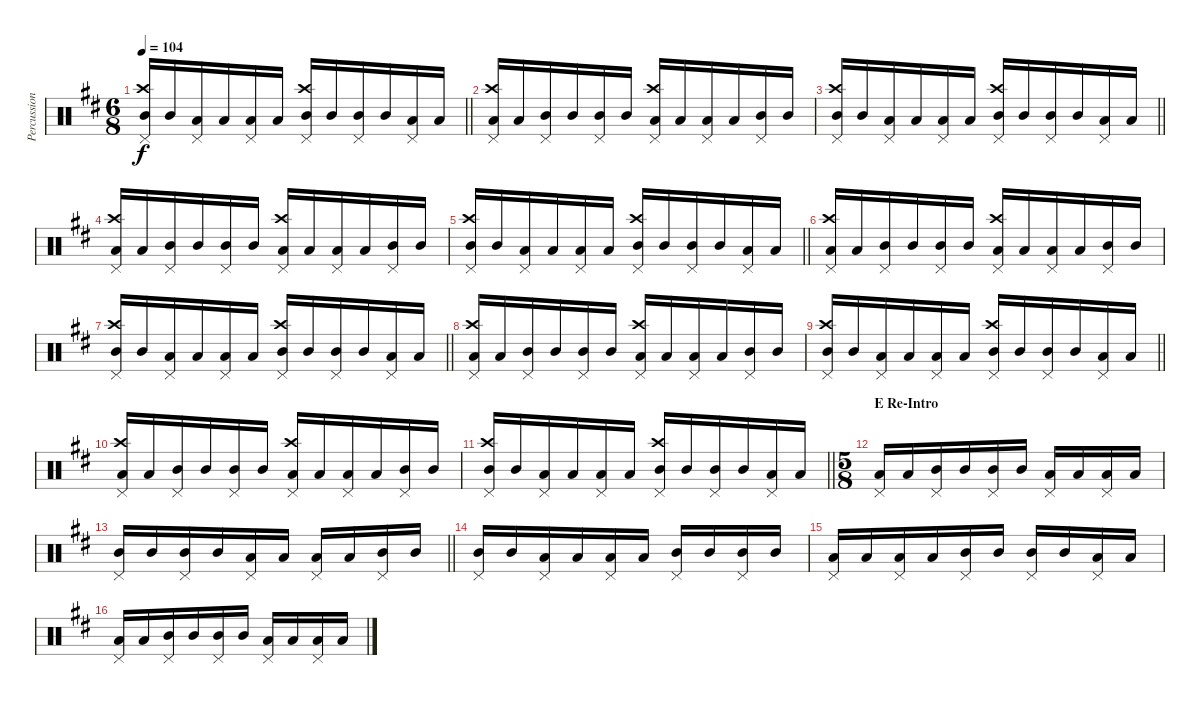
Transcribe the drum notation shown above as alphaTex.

\track ("Percussion" "Percussion") {instrument percussion}
\staff {score}
\articulation defaults
\ts (6 8)
\tempo 104
\clef neutral
\barLineRight lightlight
\ks d
("Pedal Hi-Hat (hit)" "Crash high (hit)" "Mid Tom (hit)").16{dy f} "Mid Tom (hit)".16 ("Pedal Hi-Hat (hit)" "Low Tom (hit)").16 "Low Tom (hit)".16 ("Pedal Hi-Hat (hit)" "Low Tom (hit)").16 "Low Tom (hit)".16 ("Pedal Hi-Hat (hit)" "Crash high (hit)" "Mid Tom (hit)").16 "Mid Tom (hit)".16 ("Pedal Hi-Hat (hit)" "Mid Tom (hit)").16 "Mid Tom (hit)".16 ("Pedal Hi-Hat (hit)" "Low Tom (hit)").16 "Low Tom (hit)".16 |
("Pedal Hi-Hat (hit)" "Crash high (hit)" "Low Tom (hit)").16 "Low Tom (hit)".16 ("Pedal Hi-Hat (hit)" "Mid Tom (hit)").16 "Mid Tom (hit)".16 ("Pedal Hi-Hat (hit)" "Mid Tom (hit)").16 "Mid Tom (hit)".16 ("Pedal Hi-Hat (hit)" "Crash high (hit)" "Low Tom (hit)").16 "Low Tom (hit)".16 ("Pedal Hi-Hat (hit)" "Low Tom (hit)").16 "Low Tom (hit)".16 ("Pedal Hi-Hat (hit)" "Mid Tom (hit)").16 "Mid Tom (hit)".16 |
\barLineRight lightlight
("Pedal Hi-Hat (hit)" "Crash high (hit)" "Mid Tom (hit)").16 "Mid Tom (hit)".16 ("Pedal Hi-Hat (hit)" "Low Tom (hit)").16 "Low Tom (hit)".16 ("Pedal Hi-Hat (hit)" "Low Tom (hit)").16 "Low Tom (hit)".16 ("Pedal Hi-Hat (hit)" "Crash high (hit)" "Mid Tom (hit)").16 "Mid Tom (hit)".16 ("Pedal Hi-Hat (hit)" "Mid Tom (hit)").16 "Mid Tom (hit)".16 ("Pedal Hi-Hat (hit)" "Low Tom (hit)").16 "Low Tom (hit)".16 |
("Pedal Hi-Hat (hit)" "Crash high (hit)" "Low Tom (hit)").16 "Low Tom (hit)".16 ("Pedal Hi-Hat (hit)" "Mid Tom (hit)").16 "Mid Tom (hit)".16 ("Pedal Hi-Hat (hit)" "Mid Tom (hit)").16 "Mid Tom (hit)".16 ("Pedal Hi-Hat (hit)" "Crash high (hit)" "Low Tom (hit)").16 "Low Tom (hit)".16 ("Pedal Hi-Hat (hit)" "Low Tom (hit)").16 "Low Tom (hit)".16 ("Pedal Hi-Hat (hit)" "Mid Tom (hit)").16 "Mid Tom (hit)".16 |
\barLineRight lightlight
("Pedal Hi-Hat (hit)" "Crash high (hit)" "Mid Tom (hit)").16 "Mid Tom (hit)".16 ("Pedal Hi-Hat (hit)" "Low Tom (hit)").16 "Low Tom (hit)".16 ("Pedal Hi-Hat (hit)" "Low Tom (hit)").16 "Low Tom (hit)".16 ("Pedal Hi-Hat (hit)" "Crash high (hit)" "Mid Tom (hit)").16 "Mid Tom (hit)".16 ("Pedal Hi-Hat (hit)" "Mid Tom (hit)").16 "Mid Tom (hit)".16 ("Pedal Hi-Hat (hit)" "Low Tom (hit)").16 "Low Tom (hit)".16 |
("Pedal Hi-Hat (hit)" "Crash high (hit)" "Low Tom (hit)").16 "Low Tom (hit)".16 ("Pedal Hi-Hat (hit)" "Mid Tom (hit)").16 "Mid Tom (hit)".16 ("Pedal Hi-Hat (hit)" "Mid Tom (hit)").16 "Mid Tom (hit)".16 ("Pedal Hi-Hat (hit)" "Crash high (hit)" "Low Tom (hit)").16 "Low Tom (hit)".16 ("Pedal Hi-Hat (hit)" "Low Tom (hit)").16 "Low Tom (hit)".16 ("Pedal Hi-Hat (hit)" "Mid Tom (hit)").16 "Mid Tom (hit)".16 |
\barLineRight lightlight
("Pedal Hi-Hat (hit)" "Crash high (hit)" "Mid Tom (hit)").16 "Mid Tom (hit)".16 ("Pedal Hi-Hat (hit)" "Low Tom (hit)").16 "Low Tom (hit)".16 ("Pedal Hi-Hat (hit)" "Low Tom (hit)").16 "Low Tom (hit)".16 ("Pedal Hi-Hat (hit)" "Crash high (hit)" "Mid Tom (hit)").16 "Mid Tom (hit)".16 ("Pedal Hi-Hat (hit)" "Mid Tom (hit)").16 "Mid Tom (hit)".16 ("Pedal Hi-Hat (hit)" "Low Tom (hit)").16 "Low Tom (hit)".16 |
("Pedal Hi-Hat (hit)" "Crash high (hit)" "Low Tom (hit)").16 "Low Tom (hit)".16 ("Pedal Hi-Hat (hit)" "Mid Tom (hit)").16 "Mid Tom (hit)".16 ("Pedal Hi-Hat (hit)" "Mid Tom (hit)").16 "Mid Tom (hit)".16 ("Pedal Hi-Hat (hit)" "Crash high (hit)" "Low Tom (hit)").16 "Low Tom (hit)".16 ("Pedal Hi-Hat (hit)" "Low Tom (hit)").16 "Low Tom (hit)".16 ("Pedal Hi-Hat (hit)" "Mid Tom (hit)").16 "Mid Tom (hit)".16 |
\barLineRight lightlight
("Pedal Hi-Hat (hit)" "Crash high (hit)" "Mid Tom (hit)").16 "Mid Tom (hit)".16 ("Pedal Hi-Hat (hit)" "Low Tom (hit)").16 "Low Tom (hit)".16 ("Pedal Hi-Hat (hit)" "Low Tom (hit)").16 "Low Tom (hit)".16 ("Pedal Hi-Hat (hit)" "Crash high (hit)" "Mid Tom (hit)").16 "Mid Tom (hit)".16 ("Pedal Hi-Hat (hit)" "Mid Tom (hit)").16 "Mid Tom (hit)".16 ("Pedal Hi-Hat (hit)" "Low Tom (hit)").16 "Low Tom (hit)".16 |
("Pedal Hi-Hat (hit)" "Crash high (hit)" "Low Tom (hit)").16 "Low Tom (hit)".16 ("Pedal Hi-Hat (hit)" "Mid Tom (hit)").16 "Mid Tom (hit)".16 ("Pedal Hi-Hat (hit)" "Mid Tom (hit)").16 "Mid Tom (hit)".16 ("Pedal Hi-Hat (hit)" "Crash high (hit)" "Low Tom (hit)").16 "Low Tom (hit)".16 ("Pedal Hi-Hat (hit)" "Low Tom (hit)").16 "Low Tom (hit)".16 ("Pedal Hi-Hat (hit)" "Mid Tom (hit)").16 "Mid Tom (hit)".16 |
\barLineRight lightlight
("Pedal Hi-Hat (hit)" "Crash high (hit)" "Mid Tom (hit)").16 "Mid Tom (hit)".16 ("Pedal Hi-Hat (hit)" "Low Tom (hit)").16 "Low Tom (hit)".16 ("Pedal Hi-Hat (hit)" "Low Tom (hit)").16 "Low Tom (hit)".16 ("Pedal Hi-Hat (hit)" "Crash high (hit)" "Mid Tom (hit)").16 "Mid Tom (hit)".16 ("Pedal Hi-Hat (hit)" "Mid Tom (hit)").16 "Mid Tom (hit)".16 ("Pedal Hi-Hat (hit)" "Low Tom (hit)").16 "Low Tom (hit)".16 |
\ts (5 8)
\section ("" "E Re-Intro")
("Pedal Hi-Hat (hit)" "Low Tom (hit)").16 "Low Tom (hit)".16 ("Pedal Hi-Hat (hit)" "Mid Tom (hit)").16 "Mid Tom (hit)".16 ("Pedal Hi-Hat (hit)" "Mid Tom (hit)").16 "Mid Tom (hit)".16 ("Pedal Hi-Hat (hit)" "Low Tom (hit)").16 "Low Tom (hit)".16 ("Pedal Hi-Hat (hit)" "Low Tom (hit)").16 "Low Tom (hit)".16 |
\barLineRight lightlight
("Pedal Hi-Hat (hit)" "Mid Tom (hit)").16 "Mid Tom (hit)".16 ("Pedal Hi-Hat (hit)" "Mid Tom (hit)").16 "Mid Tom (hit)".16 ("Pedal Hi-Hat (hit)" "Low Tom (hit)").16 "Low Tom (hit)".16 ("Pedal Hi-Hat (hit)" "Low Tom (hit)").16 "Low Tom (hit)".16 ("Pedal Hi-Hat (hit)" "Mid Tom (hit)").16 "Mid Tom (hit)".16 |
("Pedal Hi-Hat (hit)" "Mid Tom (hit)").16 "Mid Tom (hit)".16 ("Pedal Hi-Hat (hit)" "Low Tom (hit)").16 "Low Tom (hit)".16 ("Pedal Hi-Hat (hit)" "Low Tom (hit)").16 "Low Tom (hit)".16 ("Pedal Hi-Hat (hit)" "Mid Tom (hit)").16 "Mid Tom (hit)".16 ("Pedal Hi-Hat (hit)" "Mid Tom (hit)").16 "Mid Tom (hit)".16 |
("Pedal Hi-Hat (hit)" "Low Tom (hit)").16 "Low Tom (hit)".16 ("Pedal Hi-Hat (hit)" "Low Tom (hit)").16 "Low Tom (hit)".16 ("Pedal Hi-Hat (hit)" "Mid Tom (hit)").16 "Mid Tom (hit)".16 ("Pedal Hi-Hat (hit)" "Mid Tom (hit)").16 "Mid Tom (hit)".16 ("Pedal Hi-Hat (hit)" "Low Tom (hit)").16 "Low Tom (hit)".16 |
("Pedal Hi-Hat (hit)" "Low Tom (hit)").16 "Low Tom (hit)".16 ("Pedal Hi-Hat (hit)" "Mid Tom (hit)").16 "Mid Tom (hit)".16 ("Pedal Hi-Hat (hit)" "Mid Tom (hit)").16 "Mid Tom (hit)".16 ("Pedal Hi-Hat (hit)" "Low Tom (hit)").16 "Low Tom (hit)".16 ("Pedal Hi-Hat (hit)" "Low Tom (hit)").16 "Low Tom (hit)".16
